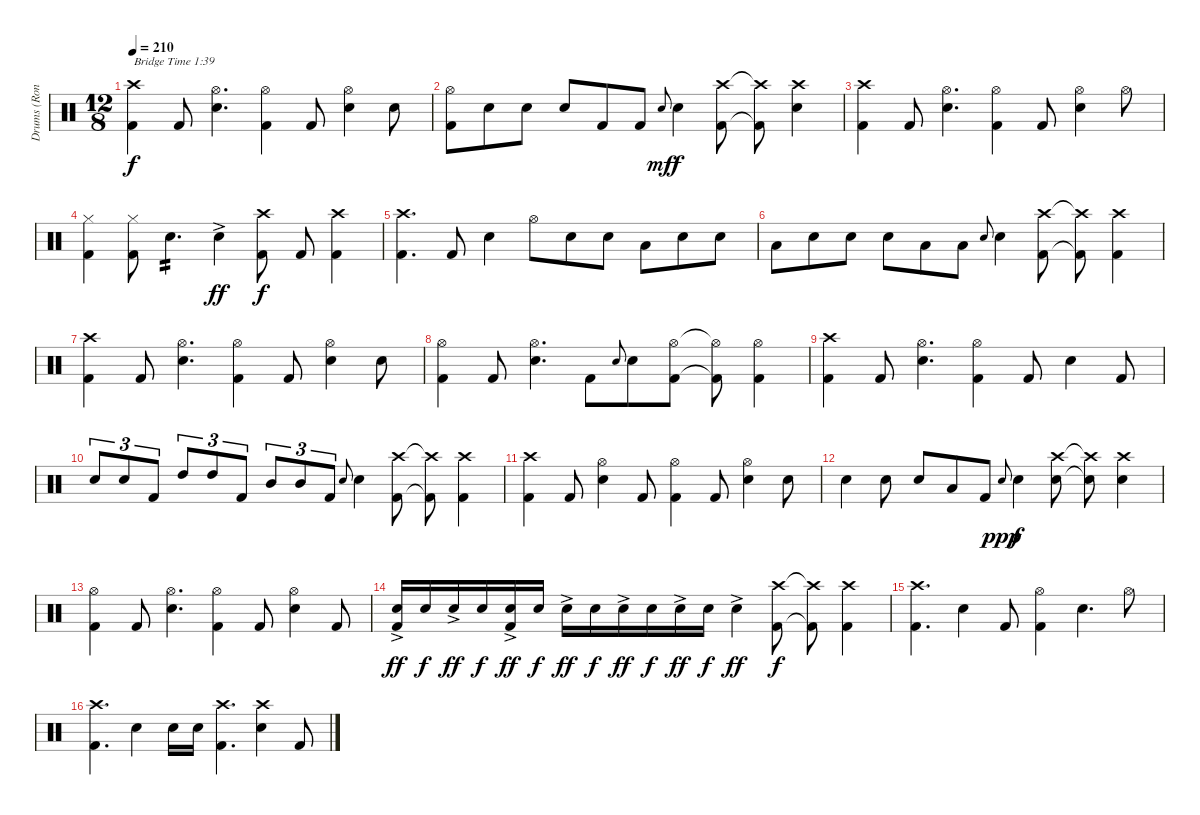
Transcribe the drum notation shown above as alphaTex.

\track ("Drums (Ronny)" "Drums (Ron") {instrument percussion}
\staff {score}
\articulation defaults
\ts (12 8)
\tempo 210
\clef neutral
\ks c
("Crash high (hit)" "Kick (hit) 2").4{txt "Bridge Time 1:39" dy f} "Kick (hit) 2".8 ("Hi-Hat (open)" "Snare (hit) 2").4{d} ("Hi-Hat (open)" "Kick (hit) 2").4 "Kick (hit) 2".8 ("Hi-Hat (open)" "Snare (hit) 2").4 "Snare (hit) 2".8 |
("Hi-Hat (open)" "Kick (hit) 2").8 "Snare (hit) 2".8 "Snare (hit) 2".8 "Snare (hit) 2".8 "Kick (hit) 2".8 "Kick (hit) 2".8 "Snare (hit) 2".8{gr onbeat dy mf} "Snare (hit) 2".4{dy f} ("Crash high (hit)" "Kick (hit) 2").8 ("Crash high (hit)"{t} "Kick (hit) 2"{t}).8 ("Crash high (hit)" "Snare (hit) 2").4 |
("Crash high (hit)" "Kick (hit) 2").4 "Kick (hit) 2".8 ("Hi-Hat (open)" "Snare (hit) 2").4{d} ("Hi-Hat (open)" "Kick (hit) 2").4 "Kick (hit) 2".8 ("Hi-Hat (open)" "Snare (hit) 2").4 "Hi-Hat (open)".8 |
("Hi-Hat (closed)" "Kick (hit) 2").4 ("Hi-Hat (closed)" "Kick (hit) 2").8 "Snare (hit) 2".4{d tp 2} "Snare (hit) 2"{ac}.4{dy ff} ("Crash high (hit)" "Kick (hit) 2").8{dy f} "Kick (hit) 2".8 ("Crash high (hit)" "Kick (hit) 2").4 |
("Crash high (hit)" "Kick (hit) 2").4{d} "Kick (hit) 2".8 "Snare (hit) 2".4 "Hi-Hat (open)".8 "Snare (hit) 2".8 "Snare (hit) 2".8 "Low Tom (hit)".8 "Snare (hit) 2".8 "Snare (hit) 2".8 |
"Low Tom (hit)".8 "Snare (hit) 2".8 "Snare (hit) 2".8 "Snare (hit) 2".8 "Low Tom (hit)".8 "Low Floor Tom (hit)".8 "Snare (hit) 2".8{gr onbeat} "Snare (hit) 2".4 ("Crash high (hit)" "Kick (hit) 2").8 ("Crash high (hit)"{t} "Kick (hit) 2"{t}).8 ("Crash high (hit)" "Kick (hit) 2").4 |
("Crash high (hit)" "Kick (hit) 2").4 "Kick (hit) 2".8 ("Hi-Hat (open)" "Snare (hit) 2").4{d} ("Hi-Hat (open)" "Kick (hit) 2").4 "Kick (hit) 2".8 ("Hi-Hat (open)" "Snare (hit) 2").4 "Snare (hit) 2".8 |
("Hi-Hat (open)" "Kick (hit) 2").4 "Kick (hit) 2".8 ("Hi-Hat (open)" "Snare (hit) 2").4{d} "Kick (hit) 2".8 "Snare (hit) 2".8{gr onbeat} "Snare (hit) 2".8 ("Hi-Hat (open)" "Kick (hit) 2").8 ("Hi-Hat (open)"{t} "Kick (hit) 2"{t}).8 ("Hi-Hat (open)" "Kick (hit) 2").4 |
("Crash high (hit)" "Kick (hit) 2").4 "Kick (hit) 2".8 ("Hi-Hat (open)" "Snare (hit) 2").4{d} ("Hi-Hat (open)" "Kick (hit) 2").4 "Kick (hit) 2".8 "Snare (hit) 2".4 "Kick (hit) 2".8 |
"Snare (hit) 2".8{tu (3 2)} "Snare (hit) 2".8{tu (3 2)} "Kick (hit) 2".8{tu (3 2)} "High Tom (hit)".8{tu (3 2)} "High Tom (hit)".8{tu (3 2)} "Kick (hit) 2".8{tu (3 2)} "Mid Tom (hit)".8{tu (3 2)} "Mid Tom (hit)".8{tu (3 2)} "Kick (hit) 2".8{tu (3 2)} "Snare (hit) 2".8{gr onbeat} "Snare (hit) 2".4 ("Crash high (hit)" "Kick (hit) 2").8 ("Crash high (hit)"{t} "Kick (hit) 2"{t}).8 ("Crash high (hit)" "Kick (hit) 2").4 |
("Crash high (hit)" "Kick (hit) 2").4 "Kick (hit) 2".8 ("Hi-Hat (open)" "Snare (hit) 2").4 "Kick (hit) 2".8 ("Hi-Hat (open)" "Kick (hit) 2").4 "Kick (hit) 2".8 ("Hi-Hat (open)" "Snare (hit) 2").4 "Snare (hit) 2".8 |
"Snare (hit) 2".4 "Snare (hit) 2".8 "Snare (hit) 2".8 "Low Tom (hit)".8 "Kick (hit) 2".8 "Snare (hit) 2".8{gr onbeat dy ppp} "Snare (hit) 2".4{dy f} ("Crash high (hit)" "Snare (hit) 2").8 ("Crash high (hit)"{t} "Snare (hit) 2"{t}).8 ("Crash high (hit)" "Snare (hit) 2").4 |
("Hi-Hat (open)" "Kick (hit) 2").4 "Kick (hit) 2".8 ("Hi-Hat (open)" "Snare (hit) 2").4{d} ("Hi-Hat (open)" "Kick (hit) 2").4 "Kick (hit) 2".8 ("Hi-Hat (open)" "Snare (hit) 2").4 "Kick (hit) 2".8 |
("Snare (hit) 2"{ac} "Kick (hit) 2").16{dy ff} "Snare (hit) 2".16{dy f} "Snare (hit) 2"{ac}.16{dy ff} "Snare (hit) 2".16{dy f} ("Snare (hit) 2"{ac} "Kick (hit) 2").16{dy ff} "Snare (hit) 2".16{dy f} "Snare (hit) 2"{ac}.16{dy ff} "Snare (hit) 2".16{dy f} "Snare (hit) 2"{ac}.16{dy ff} "Snare (hit) 2".16{dy f} "Snare (hit) 2"{ac}.16{dy ff} "Snare (hit) 2".16{dy f} "Snare (hit) 2"{ac}.4{dy ff} ("Crash high (hit)" "Kick (hit) 2").8{dy f} ("Crash high (hit)"{t} "Kick (hit) 2"{t}).8 ("Crash high (hit)" "Kick (hit) 2").4 |
("Crash high (hit)" "Kick (hit) 2").4{d} "Snare (hit) 2".4 "Kick (hit) 2".8 ("Hi-Hat (open)" "Kick (hit) 2").4 "Snare (hit) 2".4{d} "Hi-Hat (open)".8 |
("Crash high (hit)" "Kick (hit) 2").4{d} "Snare (hit) 2".4 "Snare (hit) 2".16 "Snare (hit) 2".16 ("Crash high (hit)" "Kick (hit) 2").4{d} ("Crash high (hit)" "Snare (hit) 2").4 "Kick (hit) 2".8
